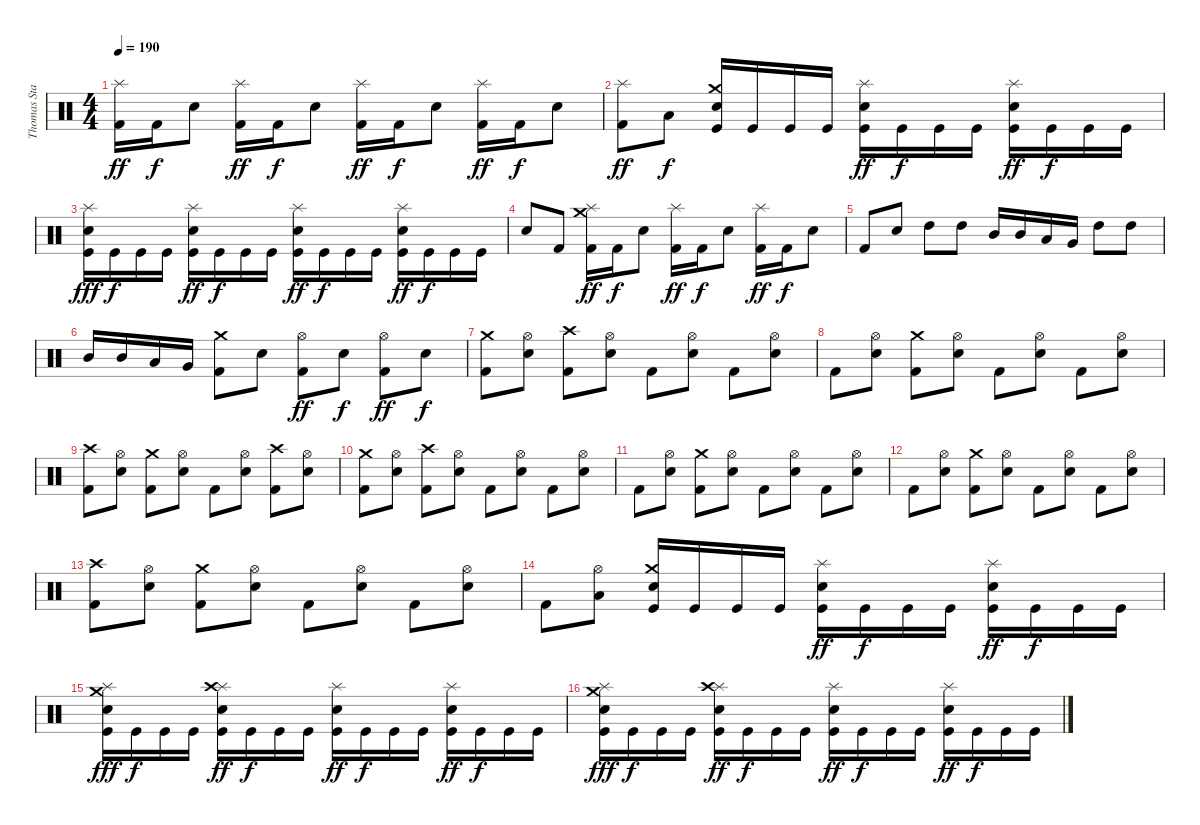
\track ("Thomas Stauch" "Thomas Sta") {instrument percussion}
\staff {score}
\articulation defaults
\ts (4 4)
\tempo 190
\clef neutral
\ks c
("Splash (hit)" "Kick (hit) 2").16{dy ff} "Kick (hit) 2".16{dy f} "Electric Snare (hit)".8 ("Splash (hit)" "Kick (hit) 2").16{dy ff} "Kick (hit) 2".16{dy f} "Electric Snare (hit)".8 ("Splash (hit)" "Kick (hit) 2").16{dy ff} "Kick (hit) 2".16{dy f} "Electric Snare (hit)".8 ("Splash (hit)" "Kick (hit) 2").16{dy ff} "Kick (hit) 2".16{dy f} "Electric Snare (hit)".8 |
("Splash (hit)" "Kick (hit) 2").8{dy ff} "Low Floor Tom (hit)".8{dy f} ("Crash medium (hit)" "Electric Snare (hit)" "Kick (hit)").16 "Kick (hit)".16 "Kick (hit)".16 "Kick (hit)".16 ("Splash (hit)" "Electric Snare (hit)" "Kick (hit)").16{dy ff} "Kick (hit)".16{dy f} "Kick (hit)".16 "Kick (hit)".16 ("Splash (hit)" "Electric Snare (hit)" "Kick (hit)").16{dy ff} "Kick (hit)".16{dy f} "Kick (hit)".16 "Kick (hit)".16 |
("Splash (hit)" "Electric Snare (hit)" "Kick (hit)").16{dy fff} "Kick (hit)".16{dy f} "Kick (hit)".16 "Kick (hit)".16 ("Splash (hit)" "Electric Snare (hit)" "Kick (hit)").16{dy ff} "Kick (hit)".16{dy f} "Kick (hit)".16 "Kick (hit)".16 ("Splash (hit)" "Electric Snare (hit)" "Kick (hit)").16{dy ff} "Kick (hit)".16{dy f} "Kick (hit)".16 "Kick (hit)".16 ("Splash (hit)" "Electric Snare (hit)" "Kick (hit)").16{dy ff} "Kick (hit)".16{dy f} "Kick (hit)".16 "Kick (hit)".16 |
"Electric Snare (hit)".8 "Kick (hit) 2".8 ("Splash (hit)" "Crash medium (hit)" "Kick (hit) 2").16{dy ff} "Kick (hit) 2".16{dy f} "Electric Snare (hit)".8 ("Splash (hit)" "Kick (hit) 2").16{dy ff} "Kick (hit) 2".16{dy f} "Electric Snare (hit)".8 ("Splash (hit)" "Kick (hit) 2").16{dy ff} "Kick (hit) 2".16{dy f} "Electric Snare (hit)".8 |
"Kick (hit) 2".8 "Electric Snare (hit)".8 "High Tom (hit)".8 "High Tom (hit)".8 "Mid Tom (hit)".16 "Mid Tom (hit)".16 "Low Tom (hit)".16 "Very Low Tom (hit)".16 "High Tom (hit)".8 "High Tom (hit)".8 |
"Mid Tom (hit)".16 "Mid Tom (hit)".16 "Low Tom (hit)".16 "Very Low Tom (hit)".16 ("Crash medium (hit)" "Kick (hit) 2").8 "Electric Snare (hit)".8 ("Hi-Hat (open)" "Kick (hit) 2").8{dy ff} "Electric Snare (hit)".8{dy f} ("Hi-Hat (open)" "Kick (hit) 2").8{dy ff} "Electric Snare (hit)".8{dy f} |
("Crash medium (hit)" "Kick (hit) 2").8 ("Hi-Hat (open)" "Electric Snare (hit)").8 ("Crash high (hit)" "Kick (hit) 2").8 ("Hi-Hat (open)" "Electric Snare (hit)").8 "Kick (hit) 2".8 ("Hi-Hat (open)" "Electric Snare (hit)").8 "Kick (hit) 2".8 ("Hi-Hat (open)" "Electric Snare (hit)").8 |
"Kick (hit) 2".8 ("Hi-Hat (open)" "Electric Snare (hit)").8 ("Crash medium (hit)" "Kick (hit) 2").8 ("Hi-Hat (open)" "Electric Snare (hit)").8 "Kick (hit) 2".8 ("Hi-Hat (open)" "Electric Snare (hit)").8 "Kick (hit) 2".8 ("Hi-Hat (open)" "Electric Snare (hit)").8 |
("Crash high (hit)" "Kick (hit) 2").8 ("Hi-Hat (open)" "Electric Snare (hit)").8 ("Crash medium (hit)" "Kick (hit) 2").8 ("Hi-Hat (open)" "Electric Snare (hit)").8 "Kick (hit) 2".8 ("Hi-Hat (open)" "Electric Snare (hit)").8 ("Crash high (hit)" "Kick (hit) 2").8 ("Hi-Hat (open)" "Electric Snare (hit)").8 |
("Crash medium (hit)" "Kick (hit) 2").8 ("Hi-Hat (open)" "Electric Snare (hit)").8 ("Crash high (hit)" "Kick (hit) 2").8 ("Hi-Hat (open)" "Electric Snare (hit)").8 "Kick (hit) 2".8 ("Hi-Hat (open)" "Electric Snare (hit)").8 "Kick (hit) 2".8 ("Hi-Hat (open)" "Electric Snare (hit)").8 |
"Kick (hit) 2".8 ("Hi-Hat (open)" "Electric Snare (hit)").8 ("Crash medium (hit)" "Kick (hit) 2").8 ("Hi-Hat (open)" "Electric Snare (hit)").8 "Kick (hit) 2".8 ("Hi-Hat (open)" "Electric Snare (hit)").8 "Kick (hit) 2".8 ("Hi-Hat (open)" "Electric Snare (hit)").8 |
"Kick (hit) 2".8 ("Hi-Hat (open)" "Electric Snare (hit)").8 ("Crash medium (hit)" "Kick (hit) 2").8 ("Hi-Hat (open)" "Electric Snare (hit)").8 "Kick (hit) 2".8 ("Hi-Hat (open)" "Electric Snare (hit)").8 "Kick (hit) 2".8 ("Hi-Hat (open)" "Electric Snare (hit)").8 |
("Crash high (hit)" "Kick (hit) 2").8 ("Hi-Hat (open)" "Electric Snare (hit)").8 ("Crash medium (hit)" "Kick (hit) 2").8 ("Hi-Hat (open)" "Electric Snare (hit)").8 "Kick (hit) 2".8 ("Hi-Hat (open)" "Electric Snare (hit)").8 "Kick (hit) 2".8 ("Hi-Hat (open)" "Electric Snare (hit)").8 |
"Kick (hit) 2".8 ("Hi-Hat (open)" "Low Floor Tom (hit)").8 ("Crash medium (hit)" "Electric Snare (hit)" "Kick (hit)").16 "Kick (hit)".16 "Kick (hit)".16 "Kick (hit)".16 ("Splash (hit)" "Electric Snare (hit)" "Kick (hit)").16{dy ff} "Kick (hit)".16{dy f} "Kick (hit)".16 "Kick (hit)".16 ("Splash (hit)" "Electric Snare (hit)" "Kick (hit)").16{dy ff} "Kick (hit)".16{dy f} "Kick (hit)".16 "Kick (hit)".16 |
("Splash (hit)" "Crash medium (hit)" "Electric Snare (hit)" "Kick (hit)").16{dy fff} "Kick (hit)".16{dy f} "Kick (hit)".16 "Kick (hit)".16 ("Splash (hit)" "Crash high (hit)" "Electric Snare (hit)" "Kick (hit)").16{dy ff} "Kick (hit)".16{dy f} "Kick (hit)".16 "Kick (hit)".16 ("Splash (hit)" "Electric Snare (hit)" "Kick (hit)").16{dy ff} "Kick (hit)".16{dy f} "Kick (hit)".16 "Kick (hit)".16 ("Splash (hit)" "Electric Snare (hit)" "Kick (hit)").16{dy ff} "Kick (hit)".16{dy f} "Kick (hit)".16 "Kick (hit)".16 |
("Splash (hit)" "Crash medium (hit)" "Electric Snare (hit)" "Kick (hit)").16{dy fff} "Kick (hit)".16{dy f} "Kick (hit)".16 "Kick (hit)".16 ("Splash (hit)" "Crash high (hit)" "Electric Snare (hit)" "Kick (hit)").16{dy ff} "Kick (hit)".16{dy f} "Kick (hit)".16 "Kick (hit)".16 ("Splash (hit)" "Electric Snare (hit)" "Kick (hit)").16{dy ff} "Kick (hit)".16{dy f} "Kick (hit)".16 "Kick (hit)".16 ("Splash (hit)" "Electric Snare (hit)" "Kick (hit)").16{dy ff} "Kick (hit)".16{dy f} "Kick (hit)".16 "Kick (hit)".16
